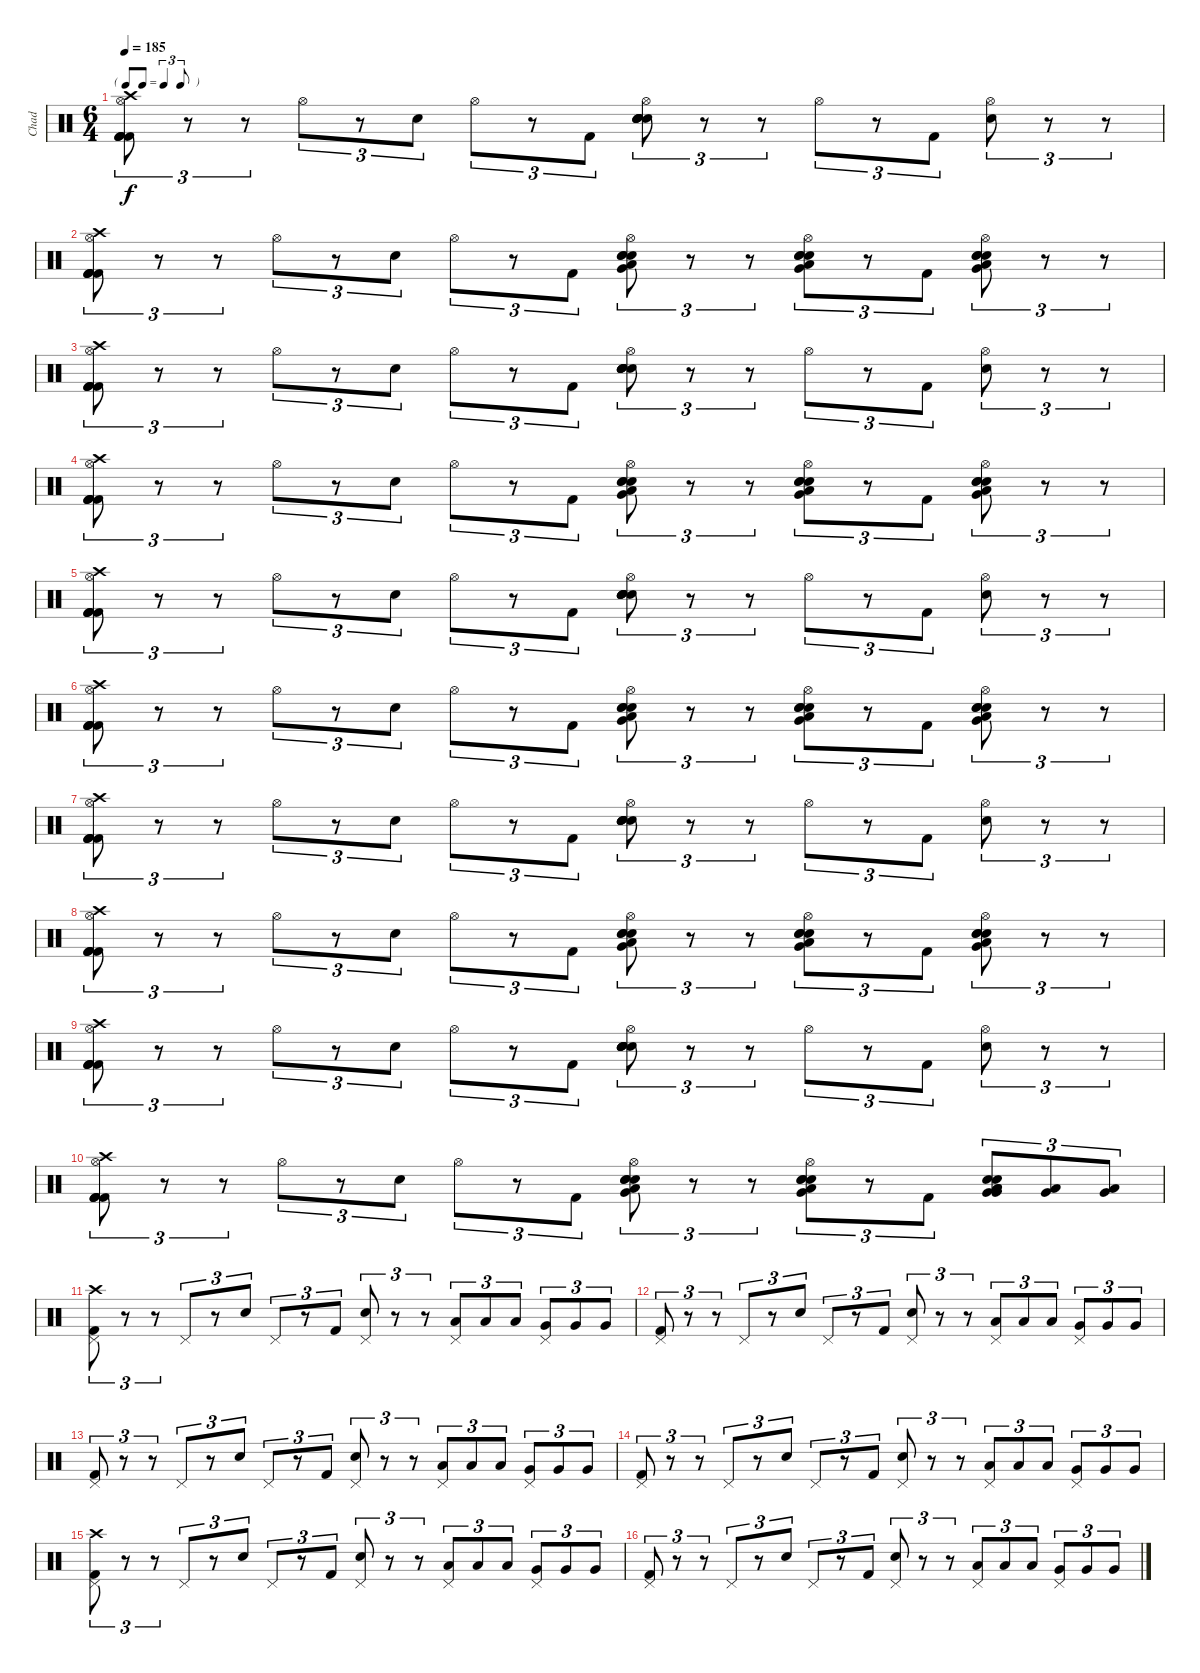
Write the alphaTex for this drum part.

\track ("Chad" "Chad") {instrument percussion}
\staff {score}
\articulation defaults
\ts (6 4)
\tf triplet8th
\tempo 185
\clef neutral
\ks c
("Crash high (hit)" "Hi-Hat (open)" "Kick (hit) 2" "Kick (hit) 2" "Kick (hit) 2" "Kick (hit) 2").8{tu (3 2) dy f} r.8{tu (3 2)} r.8{tu (3 2)} "Hi-Hat (open)".8{tu (3 2)} r.8{tu (3 2)} "Electric Snare (hit)".8{tu (3 2)} "Hi-Hat (open)".8{tu (3 2)} r.8{tu (3 2)} "Kick (hit) 2".8{tu (3 2)} ("Electric Snare (hit)" "Hi-Hat (open)" "Electric Snare (hit)" "Electric Snare (hit)" "Electric Snare (hit)" "Electric Snare (hit)").8{tu (3 2)} r.8{tu (3 2)} r.8{tu (3 2)} "Hi-Hat (open)".8{tu (3 2)} r.8{tu (3 2)} "Kick (hit) 2".8{tu (3 2)} ("Electric Snare (hit)" "Hi-Hat (open)").8{tu (3 2)} r.8{tu (3 2)} r.8{tu (3 2)} |
("Crash high (hit)" "Hi-Hat (open)" "Kick (hit) 2" "Kick (hit) 2" "Kick (hit) 2" "Kick (hit) 2").8{tu (3 2)} r.8{tu (3 2)} r.8{tu (3 2)} "Hi-Hat (open)".8{tu (3 2)} r.8{tu (3 2)} "Electric Snare (hit)".8{tu (3 2)} "Hi-Hat (open)".8{tu (3 2)} r.8{tu (3 2)} "Kick (hit) 2".8{tu (3 2)} ("Electric Snare (hit)" "Hi-Hat (open)" "Electric Snare (hit)" "Electric Snare (hit)" "Very Low Tom (hit)" "Low Tom (hit)").8{tu (3 2)} r.8{tu (3 2)} r.8{tu (3 2)} ("Electric Snare (hit)" "Hi-Hat (open)" "Electric Snare (hit)" "Electric Snare (hit)" "Very Low Tom (hit)" "Low Tom (hit)").8{tu (3 2)} r.8{tu (3 2)} "Kick (hit) 2".8{tu (3 2)} ("Electric Snare (hit)" "Hi-Hat (open)" "Electric Snare (hit)" "Electric Snare (hit)" "Very Low Tom (hit)" "Low Tom (hit)").8{tu (3 2)} r.8{tu (3 2)} r.8{tu (3 2)} |
("Crash high (hit)" "Hi-Hat (open)" "Kick (hit) 2" "Kick (hit) 2" "Kick (hit) 2" "Kick (hit) 2").8{tu (3 2)} r.8{tu (3 2)} r.8{tu (3 2)} "Hi-Hat (open)".8{tu (3 2)} r.8{tu (3 2)} "Electric Snare (hit)".8{tu (3 2)} "Hi-Hat (open)".8{tu (3 2)} r.8{tu (3 2)} "Kick (hit) 2".8{tu (3 2)} ("Electric Snare (hit)" "Hi-Hat (open)" "Electric Snare (hit)" "Electric Snare (hit)" "Electric Snare (hit)" "Electric Snare (hit)").8{tu (3 2)} r.8{tu (3 2)} r.8{tu (3 2)} "Hi-Hat (open)".8{tu (3 2)} r.8{tu (3 2)} "Kick (hit) 2".8{tu (3 2)} ("Electric Snare (hit)" "Hi-Hat (open)").8{tu (3 2)} r.8{tu (3 2)} r.8{tu (3 2)} |
("Crash high (hit)" "Hi-Hat (open)" "Kick (hit) 2" "Kick (hit) 2" "Kick (hit) 2" "Kick (hit) 2").8{tu (3 2)} r.8{tu (3 2)} r.8{tu (3 2)} "Hi-Hat (open)".8{tu (3 2)} r.8{tu (3 2)} "Electric Snare (hit)".8{tu (3 2)} "Hi-Hat (open)".8{tu (3 2)} r.8{tu (3 2)} "Kick (hit) 2".8{tu (3 2)} ("Electric Snare (hit)" "Hi-Hat (open)" "Electric Snare (hit)" "Electric Snare (hit)" "Very Low Tom (hit)" "Low Tom (hit)").8{tu (3 2)} r.8{tu (3 2)} r.8{tu (3 2)} ("Electric Snare (hit)" "Hi-Hat (open)" "Electric Snare (hit)" "Electric Snare (hit)" "Very Low Tom (hit)" "Low Tom (hit)").8{tu (3 2)} r.8{tu (3 2)} "Kick (hit) 2".8{tu (3 2)} ("Electric Snare (hit)" "Hi-Hat (open)" "Electric Snare (hit)" "Electric Snare (hit)" "Very Low Tom (hit)" "Low Tom (hit)").8{tu (3 2)} r.8{tu (3 2)} r.8{tu (3 2)} |
("Crash high (hit)" "Hi-Hat (open)" "Kick (hit) 2" "Kick (hit) 2" "Kick (hit) 2" "Kick (hit) 2").8{tu (3 2)} r.8{tu (3 2)} r.8{tu (3 2)} "Hi-Hat (open)".8{tu (3 2)} r.8{tu (3 2)} "Electric Snare (hit)".8{tu (3 2)} "Hi-Hat (open)".8{tu (3 2)} r.8{tu (3 2)} "Kick (hit) 2".8{tu (3 2)} ("Electric Snare (hit)" "Hi-Hat (open)" "Electric Snare (hit)" "Electric Snare (hit)" "Electric Snare (hit)" "Electric Snare (hit)").8{tu (3 2)} r.8{tu (3 2)} r.8{tu (3 2)} "Hi-Hat (open)".8{tu (3 2)} r.8{tu (3 2)} "Kick (hit) 2".8{tu (3 2)} ("Electric Snare (hit)" "Hi-Hat (open)").8{tu (3 2)} r.8{tu (3 2)} r.8{tu (3 2)} |
("Crash high (hit)" "Hi-Hat (open)" "Kick (hit) 2" "Kick (hit) 2" "Kick (hit) 2" "Kick (hit) 2").8{tu (3 2)} r.8{tu (3 2)} r.8{tu (3 2)} "Hi-Hat (open)".8{tu (3 2)} r.8{tu (3 2)} "Electric Snare (hit)".8{tu (3 2)} "Hi-Hat (open)".8{tu (3 2)} r.8{tu (3 2)} "Kick (hit) 2".8{tu (3 2)} ("Electric Snare (hit)" "Hi-Hat (open)" "Electric Snare (hit)" "Electric Snare (hit)" "Very Low Tom (hit)" "Low Tom (hit)").8{tu (3 2)} r.8{tu (3 2)} r.8{tu (3 2)} ("Electric Snare (hit)" "Hi-Hat (open)" "Electric Snare (hit)" "Electric Snare (hit)" "Very Low Tom (hit)" "Low Tom (hit)").8{tu (3 2)} r.8{tu (3 2)} "Kick (hit) 2".8{tu (3 2)} ("Electric Snare (hit)" "Hi-Hat (open)" "Electric Snare (hit)" "Electric Snare (hit)" "Very Low Tom (hit)" "Low Tom (hit)").8{tu (3 2)} r.8{tu (3 2)} r.8{tu (3 2)} |
("Crash high (hit)" "Hi-Hat (open)" "Kick (hit) 2" "Kick (hit) 2" "Kick (hit) 2" "Kick (hit) 2").8{tu (3 2)} r.8{tu (3 2)} r.8{tu (3 2)} "Hi-Hat (open)".8{tu (3 2)} r.8{tu (3 2)} "Electric Snare (hit)".8{tu (3 2)} "Hi-Hat (open)".8{tu (3 2)} r.8{tu (3 2)} "Kick (hit) 2".8{tu (3 2)} ("Electric Snare (hit)" "Hi-Hat (open)" "Electric Snare (hit)" "Electric Snare (hit)" "Electric Snare (hit)" "Electric Snare (hit)").8{tu (3 2)} r.8{tu (3 2)} r.8{tu (3 2)} "Hi-Hat (open)".8{tu (3 2)} r.8{tu (3 2)} "Kick (hit) 2".8{tu (3 2)} ("Electric Snare (hit)" "Hi-Hat (open)").8{tu (3 2)} r.8{tu (3 2)} r.8{tu (3 2)} |
("Crash high (hit)" "Hi-Hat (open)" "Kick (hit) 2" "Kick (hit) 2" "Kick (hit) 2" "Kick (hit) 2").8{tu (3 2)} r.8{tu (3 2)} r.8{tu (3 2)} "Hi-Hat (open)".8{tu (3 2)} r.8{tu (3 2)} "Electric Snare (hit)".8{tu (3 2)} "Hi-Hat (open)".8{tu (3 2)} r.8{tu (3 2)} "Kick (hit) 2".8{tu (3 2)} ("Electric Snare (hit)" "Hi-Hat (open)" "Electric Snare (hit)" "Electric Snare (hit)" "Very Low Tom (hit)" "Low Tom (hit)").8{tu (3 2)} r.8{tu (3 2)} r.8{tu (3 2)} ("Electric Snare (hit)" "Hi-Hat (open)" "Electric Snare (hit)" "Electric Snare (hit)" "Very Low Tom (hit)" "Low Tom (hit)").8{tu (3 2)} r.8{tu (3 2)} "Kick (hit) 2".8{tu (3 2)} ("Electric Snare (hit)" "Hi-Hat (open)" "Electric Snare (hit)" "Electric Snare (hit)" "Very Low Tom (hit)" "Low Tom (hit)").8{tu (3 2)} r.8{tu (3 2)} r.8{tu (3 2)} |
("Crash high (hit)" "Hi-Hat (open)" "Kick (hit) 2" "Kick (hit) 2" "Kick (hit) 2" "Kick (hit) 2").8{tu (3 2)} r.8{tu (3 2)} r.8{tu (3 2)} "Hi-Hat (open)".8{tu (3 2)} r.8{tu (3 2)} "Electric Snare (hit)".8{tu (3 2)} "Hi-Hat (open)".8{tu (3 2)} r.8{tu (3 2)} "Kick (hit) 2".8{tu (3 2)} ("Electric Snare (hit)" "Hi-Hat (open)" "Electric Snare (hit)" "Electric Snare (hit)" "Electric Snare (hit)" "Electric Snare (hit)").8{tu (3 2)} r.8{tu (3 2)} r.8{tu (3 2)} "Hi-Hat (open)".8{tu (3 2)} r.8{tu (3 2)} "Kick (hit) 2".8{tu (3 2)} ("Electric Snare (hit)" "Hi-Hat (open)").8{tu (3 2)} r.8{tu (3 2)} r.8{tu (3 2)} |
("Crash high (hit)" "Hi-Hat (open)" "Kick (hit) 2" "Kick (hit) 2" "Kick (hit) 2" "Kick (hit) 2").8{tu (3 2)} r.8{tu (3 2)} r.8{tu (3 2)} "Hi-Hat (open)".8{tu (3 2)} r.8{tu (3 2)} "Electric Snare (hit)".8{tu (3 2)} "Hi-Hat (open)".8{tu (3 2)} r.8{tu (3 2)} "Kick (hit) 2".8{tu (3 2)} ("Electric Snare (hit)" "Hi-Hat (open)" "Electric Snare (hit)" "Electric Snare (hit)" "Very Low Tom (hit)" "Low Tom (hit)").8{tu (3 2)} r.8{tu (3 2)} r.8{tu (3 2)} ("Electric Snare (hit)" "Hi-Hat (open)" "Electric Snare (hit)" "Electric Snare (hit)" "Very Low Tom (hit)" "Low Tom (hit)").8{tu (3 2)} r.8{tu (3 2)} "Kick (hit) 2".8{tu (3 2)} ("Low Tom (hit)" "Very Low Tom (hit)" "Electric Snare (hit)" "Electric Snare (hit)" "Very Low Tom (hit)" "Low Tom (hit)").8{tu (3 2)} ("Low Tom (hit)" "Very Low Tom (hit)").8{tu (3 2)} ("Low Tom (hit)" "Very Low Tom (hit)").8{tu (3 2)} |
("Kick (hit) 2" "Pedal Hi-Hat (hit)" "Crash high (hit)").8{tu (3 2)} r.8{tu (3 2)} r.8{tu (3 2)} "Pedal Hi-Hat (hit)".8{tu (3 2)} r.8{tu (3 2)} "Electric Snare (hit)".8{tu (3 2)} "Pedal Hi-Hat (hit)".8{tu (3 2)} r.8{tu (3 2)} "Kick (hit) 2".8{tu (3 2)} ("Electric Snare (hit)" "Pedal Hi-Hat (hit)").8{tu (3 2)} r.8{tu (3 2)} r.8{tu (3 2)} ("Low Tom (hit)" "Pedal Hi-Hat (hit)").8{tu (3 2)} "Low Tom (hit)".8{tu (3 2)} "Low Tom (hit)".8{tu (3 2)} ("Very Low Tom (hit)" "Pedal Hi-Hat (hit)").8{tu (3 2)} "Very Low Tom (hit)".8{tu (3 2)} "Very Low Tom (hit)".8{tu (3 2)} |
("Kick (hit) 2" "Pedal Hi-Hat (hit)").8{tu (3 2)} r.8{tu (3 2)} r.8{tu (3 2)} "Pedal Hi-Hat (hit)".8{tu (3 2)} r.8{tu (3 2)} "Electric Snare (hit)".8{tu (3 2)} "Pedal Hi-Hat (hit)".8{tu (3 2)} r.8{tu (3 2)} "Kick (hit) 2".8{tu (3 2)} ("Electric Snare (hit)" "Pedal Hi-Hat (hit)").8{tu (3 2)} r.8{tu (3 2)} r.8{tu (3 2)} ("Low Tom (hit)" "Pedal Hi-Hat (hit)").8{tu (3 2)} "Low Tom (hit)".8{tu (3 2)} "Low Tom (hit)".8{tu (3 2)} ("Very Low Tom (hit)" "Pedal Hi-Hat (hit)").8{tu (3 2)} "Very Low Tom (hit)".8{tu (3 2)} "Very Low Tom (hit)".8{tu (3 2)} |
("Kick (hit) 2" "Pedal Hi-Hat (hit)").8{tu (3 2)} r.8{tu (3 2)} r.8{tu (3 2)} "Pedal Hi-Hat (hit)".8{tu (3 2)} r.8{tu (3 2)} "Electric Snare (hit)".8{tu (3 2)} "Pedal Hi-Hat (hit)".8{tu (3 2)} r.8{tu (3 2)} "Kick (hit) 2".8{tu (3 2)} ("Electric Snare (hit)" "Pedal Hi-Hat (hit)").8{tu (3 2)} r.8{tu (3 2)} r.8{tu (3 2)} ("Low Tom (hit)" "Pedal Hi-Hat (hit)").8{tu (3 2)} "Low Tom (hit)".8{tu (3 2)} "Low Tom (hit)".8{tu (3 2)} ("Very Low Tom (hit)" "Pedal Hi-Hat (hit)").8{tu (3 2)} "Very Low Tom (hit)".8{tu (3 2)} "Very Low Tom (hit)".8{tu (3 2)} |
("Kick (hit) 2" "Pedal Hi-Hat (hit)").8{tu (3 2)} r.8{tu (3 2)} r.8{tu (3 2)} "Pedal Hi-Hat (hit)".8{tu (3 2)} r.8{tu (3 2)} "Electric Snare (hit)".8{tu (3 2)} "Pedal Hi-Hat (hit)".8{tu (3 2)} r.8{tu (3 2)} "Kick (hit) 2".8{tu (3 2)} ("Electric Snare (hit)" "Pedal Hi-Hat (hit)").8{tu (3 2)} r.8{tu (3 2)} r.8{tu (3 2)} ("Low Tom (hit)" "Pedal Hi-Hat (hit)").8{tu (3 2)} "Low Tom (hit)".8{tu (3 2)} "Low Tom (hit)".8{tu (3 2)} ("Very Low Tom (hit)" "Pedal Hi-Hat (hit)").8{tu (3 2)} "Very Low Tom (hit)".8{tu (3 2)} "Very Low Tom (hit)".8{tu (3 2)} |
("Kick (hit) 2" "Pedal Hi-Hat (hit)" "Crash high (hit)").8{tu (3 2)} r.8{tu (3 2)} r.8{tu (3 2)} "Pedal Hi-Hat (hit)".8{tu (3 2)} r.8{tu (3 2)} "Electric Snare (hit)".8{tu (3 2)} "Pedal Hi-Hat (hit)".8{tu (3 2)} r.8{tu (3 2)} "Kick (hit) 2".8{tu (3 2)} ("Electric Snare (hit)" "Pedal Hi-Hat (hit)").8{tu (3 2)} r.8{tu (3 2)} r.8{tu (3 2)} ("Low Tom (hit)" "Pedal Hi-Hat (hit)").8{tu (3 2)} "Low Tom (hit)".8{tu (3 2)} "Low Tom (hit)".8{tu (3 2)} ("Very Low Tom (hit)" "Pedal Hi-Hat (hit)").8{tu (3 2)} "Very Low Tom (hit)".8{tu (3 2)} "Very Low Tom (hit)".8{tu (3 2)} |
("Kick (hit) 2" "Pedal Hi-Hat (hit)").8{tu (3 2)} r.8{tu (3 2)} r.8{tu (3 2)} "Pedal Hi-Hat (hit)".8{tu (3 2)} r.8{tu (3 2)} "Electric Snare (hit)".8{tu (3 2)} "Pedal Hi-Hat (hit)".8{tu (3 2)} r.8{tu (3 2)} "Kick (hit) 2".8{tu (3 2)} ("Electric Snare (hit)" "Pedal Hi-Hat (hit)").8{tu (3 2)} r.8{tu (3 2)} r.8{tu (3 2)} ("Low Tom (hit)" "Pedal Hi-Hat (hit)").8{tu (3 2)} "Low Tom (hit)".8{tu (3 2)} "Low Tom (hit)".8{tu (3 2)} ("Very Low Tom (hit)" "Pedal Hi-Hat (hit)").8{tu (3 2)} "Very Low Tom (hit)".8{tu (3 2)} "Very Low Tom (hit)".8{tu (3 2)}
